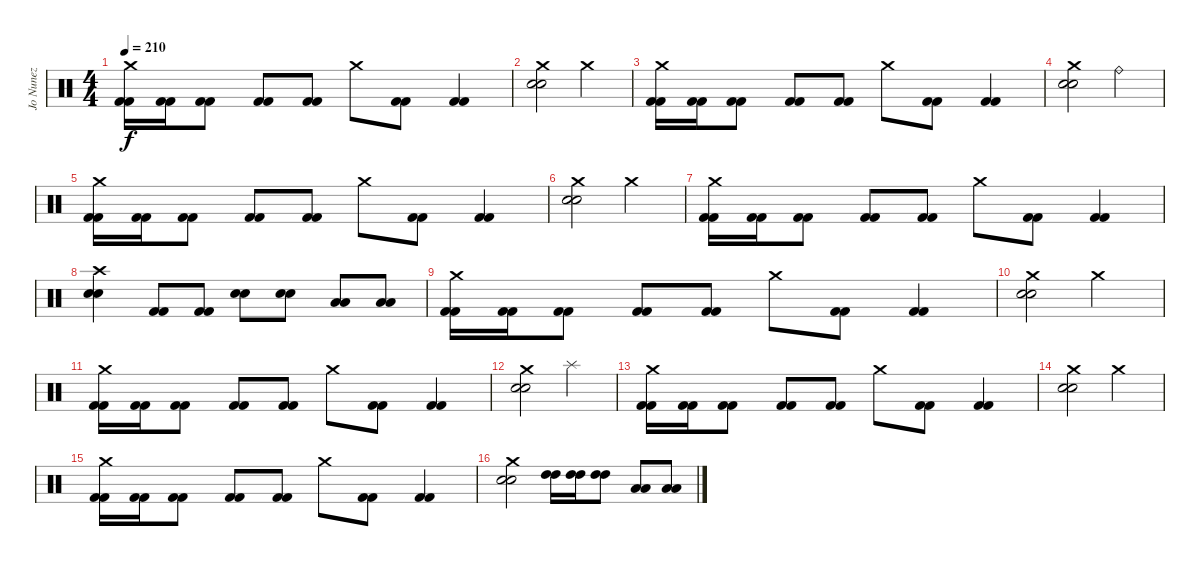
\track ("Jo Nunez" "Jo Nunez") {instrument percussion}
\staff {score}
\articulation defaults
\ts (4 4)
\tempo 210
\clef neutral
\ks c
("Kick (hit) 2" "Kick (hit) 2" "Crash medium (hit)").16{dy f} ("Kick (hit) 2" "Kick (hit) 2").16 ("Kick (hit) 2" "Kick (hit) 2").8 ("Kick (hit) 2" "Kick (hit) 2").8 ("Kick (hit) 2" "Kick (hit) 2").8 "Crash medium (hit)".8 ("Kick (hit) 2" "Kick (hit) 2").8 ("Kick (hit) 2" "Kick (hit) 2").4 |
("Electric Snare (hit)" "Electric Snare (hit)" "Crash medium (hit)").2 "Crash medium (hit)".2 |
("Kick (hit) 2" "Kick (hit) 2" "Crash medium (hit)").16 ("Kick (hit) 2" "Kick (hit) 2").16 ("Kick (hit) 2" "Kick (hit) 2").8 ("Kick (hit) 2" "Kick (hit) 2").8 ("Kick (hit) 2" "Kick (hit) 2").8 "Crash medium (hit)".8 ("Kick (hit) 2" "Kick (hit) 2").8 ("Kick (hit) 2" "Kick (hit) 2").4 |
("Electric Snare (hit)" "Electric Snare (hit)" "Crash medium (hit)").2 "Ride (bell)".2 |
("Kick (hit) 2" "Kick (hit) 2" "Crash medium (hit)").16 ("Kick (hit) 2" "Kick (hit) 2").16 ("Kick (hit) 2" "Kick (hit) 2").8 ("Kick (hit) 2" "Kick (hit) 2").8 ("Kick (hit) 2" "Kick (hit) 2").8 "Crash medium (hit)".8 ("Kick (hit) 2" "Kick (hit) 2").8 ("Kick (hit) 2" "Kick (hit) 2").4 |
("Electric Snare (hit)" "Electric Snare (hit)" "Crash medium (hit)").2 "Crash medium (hit)".2 |
("Kick (hit) 2" "Kick (hit) 2" "Crash medium (hit)").16 ("Kick (hit) 2" "Kick (hit) 2").16 ("Kick (hit) 2" "Kick (hit) 2").8 ("Kick (hit) 2" "Kick (hit) 2").8 ("Kick (hit) 2" "Kick (hit) 2").8 "Crash medium (hit)".8 ("Kick (hit) 2" "Kick (hit) 2").8 ("Kick (hit) 2" "Kick (hit) 2").4 |
("Electric Snare (hit)" "Electric Snare (hit)" "Crash high (hit)").4 ("Kick (hit) 2" "Kick (hit) 2").8 ("Kick (hit) 2" "Kick (hit) 2").8 ("Electric Snare (hit)" "Electric Snare (hit)").8 ("Electric Snare (hit)" "Electric Snare (hit)").8 ("Low Floor Tom (hit)" "Low Floor Tom (hit)").8 ("Low Floor Tom (hit)" "Low Floor Tom (hit)").8 |
("Kick (hit) 2" "Kick (hit) 2" "Crash medium (hit)").16 ("Kick (hit) 2" "Kick (hit) 2").16 ("Kick (hit) 2" "Kick (hit) 2").8 ("Kick (hit) 2" "Kick (hit) 2").8 ("Kick (hit) 2" "Kick (hit) 2").8 "Crash medium (hit)".8 ("Kick (hit) 2" "Kick (hit) 2").8 ("Kick (hit) 2" "Kick (hit) 2").4 |
("Electric Snare (hit)" "Electric Snare (hit)" "Crash medium (hit)").2 "Crash medium (hit)".2 |
("Kick (hit) 2" "Kick (hit) 2" "Crash medium (hit)").16 ("Kick (hit) 2" "Kick (hit) 2").16 ("Kick (hit) 2" "Kick (hit) 2").8 ("Kick (hit) 2" "Kick (hit) 2").8 ("Kick (hit) 2" "Kick (hit) 2").8 "Crash medium (hit)".8 ("Kick (hit) 2" "Kick (hit) 2").8 ("Kick (hit) 2" "Kick (hit) 2").4 |
("Electric Snare (hit)" "Electric Snare (hit)" "Crash medium (hit)").2 "Splash (hit)".2 |
("Kick (hit) 2" "Kick (hit) 2" "Crash medium (hit)").16 ("Kick (hit) 2" "Kick (hit) 2").16 ("Kick (hit) 2" "Kick (hit) 2").8 ("Kick (hit) 2" "Kick (hit) 2").8 ("Kick (hit) 2" "Kick (hit) 2").8 "Crash medium (hit)".8 ("Kick (hit) 2" "Kick (hit) 2").8 ("Kick (hit) 2" "Kick (hit) 2").4 |
("Electric Snare (hit)" "Electric Snare (hit)" "Crash medium (hit)").2 "Crash medium (hit)".2 |
("Kick (hit) 2" "Kick (hit) 2" "Crash medium (hit)").16 ("Kick (hit) 2" "Kick (hit) 2").16 ("Kick (hit) 2" "Kick (hit) 2").8 ("Kick (hit) 2" "Kick (hit) 2").8 ("Kick (hit) 2" "Kick (hit) 2").8 "Crash medium (hit)".8 ("Kick (hit) 2" "Kick (hit) 2").8 ("Kick (hit) 2" "Kick (hit) 2").4 |
("Electric Snare (hit)" "Electric Snare (hit)" "Crash medium (hit)").2 ("High Tom (hit)" "High Tom (hit)").16 ("High Tom (hit)" "High Tom (hit)").16 ("High Tom (hit)" "High Tom (hit)").8 ("Low Tom (hit)" "Low Tom (hit)").8 ("Low Tom (hit)" "Low Tom (hit)").8
